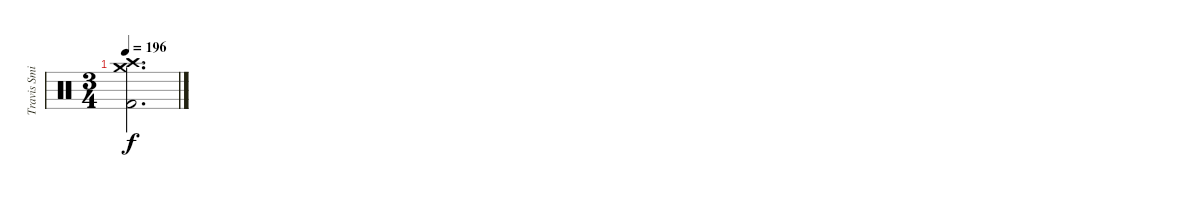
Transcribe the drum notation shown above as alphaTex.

\track ("Travis Smith" "Travis Smi") {instrument percussion}
\staff {score}
\articulation defaults
\ts (3 4)
\tempo 196
\clef neutral
\ks c
("Crash medium (hit)" "Crash high (hit)" "Kick (hit) 2").2{d dy f}
